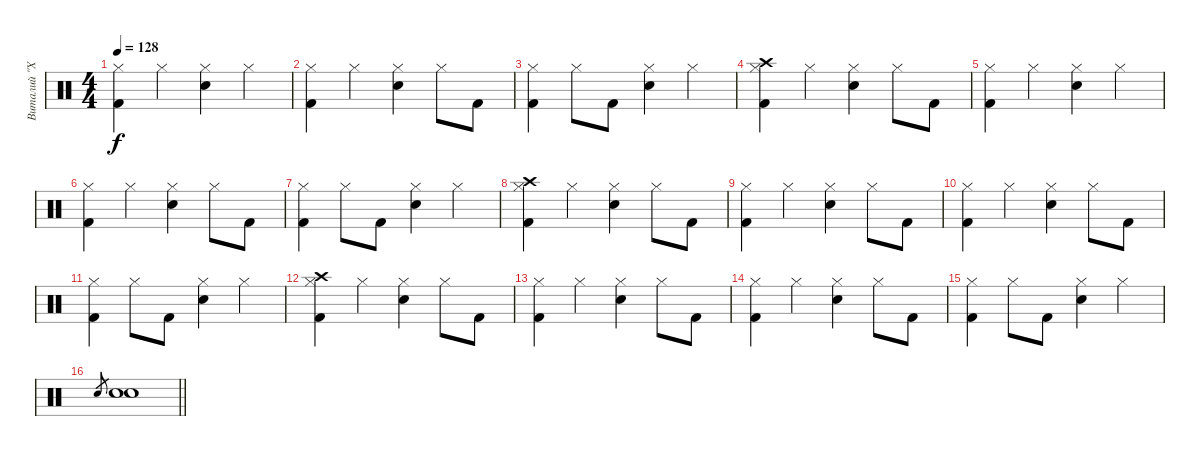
\track ("Виталий \"Хамер\" Лядов" "Виталий \"Х") {instrument percussion}
\staff {score}
\articulation defaults
\ts (4 4)
\tempo 128
\clef neutral
\ks c
("Kick (hit) 2" "Hi-Hat (closed)").4{dy f} "Hi-Hat (closed)".4 ("Electric Snare (hit)" "Hi-Hat (closed)").4 "Hi-Hat (closed)".4 |
("Kick (hit) 2" "Hi-Hat (closed)").4 "Hi-Hat (closed)".4 ("Electric Snare (hit)" "Hi-Hat (closed)").4 "Hi-Hat (closed)".8 "Kick (hit) 2".8 |
("Kick (hit) 2" "Hi-Hat (closed)").4 "Hi-Hat (closed)".8 "Kick (hit) 2".8 ("Electric Snare (hit)" "Hi-Hat (closed)").4 "Hi-Hat (closed)".4 |
("Kick (hit) 2" "Hi-Hat (closed)" "Crash high (hit)").4 "Hi-Hat (closed)".4 ("Electric Snare (hit)" "Hi-Hat (closed)").4 "Hi-Hat (closed)".8 "Kick (hit) 2".8 |
("Kick (hit) 2" "Hi-Hat (closed)").4 "Hi-Hat (closed)".4 ("Electric Snare (hit)" "Hi-Hat (closed)").4 "Hi-Hat (closed)".4 |
("Kick (hit) 2" "Hi-Hat (closed)").4 "Hi-Hat (closed)".4 ("Electric Snare (hit)" "Hi-Hat (closed)").4 "Hi-Hat (closed)".8 "Kick (hit) 2".8 |
("Kick (hit) 2" "Hi-Hat (closed)").4 "Hi-Hat (closed)".8 "Kick (hit) 2".8 ("Electric Snare (hit)" "Hi-Hat (closed)").4 "Hi-Hat (closed)".4 |
("Kick (hit) 2" "Hi-Hat (closed)" "Crash high (hit)").4 "Hi-Hat (closed)".4 ("Electric Snare (hit)" "Hi-Hat (closed)").4 "Hi-Hat (closed)".8 "Kick (hit) 2".8 |
("Kick (hit) 2" "Hi-Hat (closed)").4 "Hi-Hat (closed)".4 ("Electric Snare (hit)" "Hi-Hat (closed)").4 "Hi-Hat (closed)".8 "Kick (hit) 2".8 |
("Kick (hit) 2" "Hi-Hat (closed)").4 "Hi-Hat (closed)".4 ("Electric Snare (hit)" "Hi-Hat (closed)").4 "Hi-Hat (closed)".8 "Kick (hit) 2".8 |
("Kick (hit) 2" "Hi-Hat (closed)").4 "Hi-Hat (closed)".8 "Kick (hit) 2".8 ("Electric Snare (hit)" "Hi-Hat (closed)").4 "Hi-Hat (closed)".4 |
("Kick (hit) 2" "Hi-Hat (closed)" "Crash high (hit)").4 "Hi-Hat (closed)".4 ("Electric Snare (hit)" "Hi-Hat (closed)").4 "Hi-Hat (closed)".8 "Kick (hit) 2".8 |
("Kick (hit) 2" "Hi-Hat (closed)").4 "Hi-Hat (closed)".4 ("Electric Snare (hit)" "Hi-Hat (closed)").4 "Hi-Hat (closed)".8 "Kick (hit) 2".8 |
("Kick (hit) 2" "Hi-Hat (closed)").4 "Hi-Hat (closed)".4 ("Electric Snare (hit)" "Hi-Hat (closed)").4 "Hi-Hat (closed)".8 "Kick (hit) 2".8 |
("Kick (hit) 2" "Hi-Hat (closed)").4 "Hi-Hat (closed)".8 "Kick (hit) 2".8 ("Electric Snare (hit)" "Hi-Hat (closed)").4 "Hi-Hat (closed)".4 |
\barLineRight lightlight "Electric Snare (hit)".8{gr}
("Electric Snare (hit)" "Electric Snare (hit)").1
